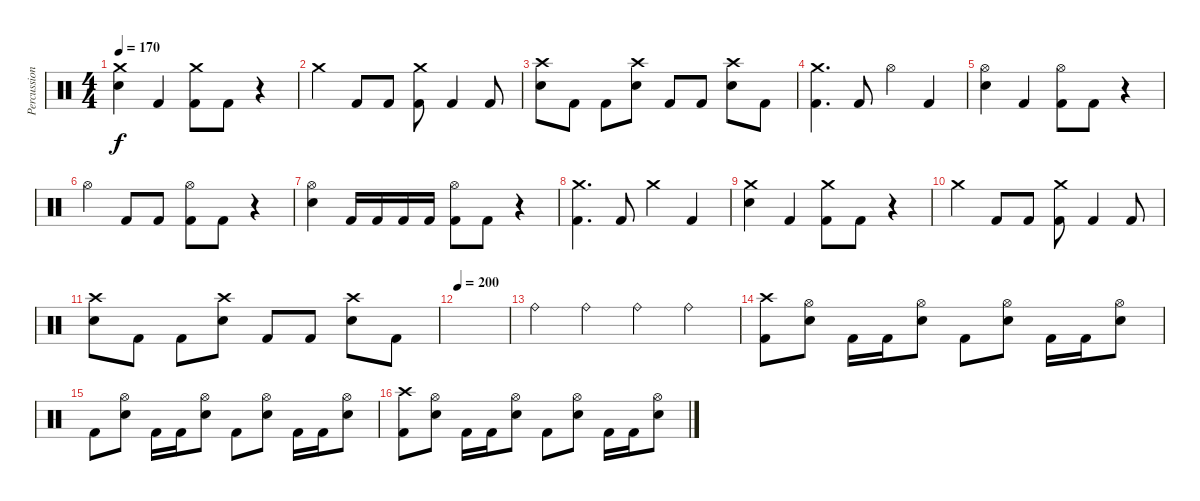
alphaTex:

\track ("Percussion" "Percussion") {instrument percussion}
\staff {score}
\articulation defaults
\ts (4 4)
\tempo 170
\clef neutral
\ks c
("Crash medium (hit)" "Snare (hit) 2").4{dy f} "Kick (hit) 2".4 ("Crash medium (hit)" "Kick (hit) 2").8 "Kick (hit) 2".8 r.4 |
"Crash medium (hit)".4 "Kick (hit) 2".8 "Kick (hit) 2".8 ("Crash medium (hit)" "Kick (hit) 2").8 "Kick (hit) 2".4 "Kick (hit) 2".8 |
("Crash high (hit)" "Snare (hit) 2").8 "Kick (hit) 2".8 "Kick (hit) 2".8 ("Crash high (hit)" "Snare (hit) 2").8 "Kick (hit) 2".8 "Kick (hit) 2".8 ("Crash high (hit)" "Snare (hit) 2").8 "Kick (hit) 2".8 |
("Crash medium (hit)" "Kick (hit) 2").4{d} "Kick (hit) 2".8 "Hi-Hat (open)".4 "Kick (hit) 2".4 |
("Hi-Hat (open)" "Snare (hit) 2").4 "Kick (hit) 2".4 ("Hi-Hat (open)" "Kick (hit) 2").8 "Kick (hit) 2".8 r.4 |
"Hi-Hat (open)".4 "Kick (hit) 2".8 "Kick (hit) 2".8 ("Hi-Hat (open)" "Kick (hit) 2").8 "Kick (hit) 2".8 r.4 |
("Hi-Hat (open)" "Snare (hit) 2").4 "Kick (hit) 2".16 "Kick (hit) 2".16 "Kick (hit) 2".16 "Kick (hit) 2".16 ("Hi-Hat (open)" "Kick (hit) 2").8 "Kick (hit) 2".8 r.4 |
("Crash medium (hit)" "Kick (hit) 2").4{d} "Kick (hit) 2".8 "Crash medium (hit)".4 "Kick (hit) 2".4 |
("Crash medium (hit)" "Snare (hit) 2").4 "Kick (hit) 2".4 ("Crash medium (hit)" "Kick (hit) 2").8 "Kick (hit) 2".8 r.4 |
"Crash medium (hit)".4 "Kick (hit) 2".8 "Kick (hit) 2".8 ("Crash medium (hit)" "Kick (hit) 2").8 "Kick (hit) 2".4 "Kick (hit) 2".8 |
("Crash high (hit)" "Snare (hit) 2").8 "Kick (hit) 2".8 "Kick (hit) 2".8 ("Crash high (hit)" "Snare (hit) 2").8 "Kick (hit) 2".8 "Kick (hit) 2".8 ("Crash high (hit)" "Snare (hit) 2").8 "Kick (hit) 2".8 |
\tempo 200
|
"Ride (bell)".4 "Ride (bell)".4 "Ride (bell)".4 "Ride (bell)".4 |
("Crash high (hit)" "Kick (hit) 2").8 ("Hi-Hat (open)" "Snare (hit) 2").8 "Kick (hit) 2".16 "Kick (hit) 2".16 ("Hi-Hat (open)" "Snare (hit) 2").8 "Kick (hit) 2".8 ("Hi-Hat (open)" "Snare (hit) 2").8 "Kick (hit) 2".16 "Kick (hit) 2".16 ("Hi-Hat (open)" "Snare (hit) 2").8 |
"Kick (hit) 2".8 ("Hi-Hat (open)" "Snare (hit) 2").8 "Kick (hit) 2".16 "Kick (hit) 2".16 ("Hi-Hat (open)" "Snare (hit) 2").8 "Kick (hit) 2".8 ("Hi-Hat (open)" "Snare (hit) 2").8 "Kick (hit) 2".16 "Kick (hit) 2".16 ("Hi-Hat (open)" "Snare (hit) 2").8 |
("Crash high (hit)" "Kick (hit) 2").8 ("Hi-Hat (open)" "Snare (hit) 2").8 "Kick (hit) 2".16 "Kick (hit) 2".16 ("Hi-Hat (open)" "Snare (hit) 2").8 "Kick (hit) 2".8 ("Hi-Hat (open)" "Snare (hit) 2").8 "Kick (hit) 2".16 "Kick (hit) 2".16 ("Hi-Hat (open)" "Snare (hit) 2").8
